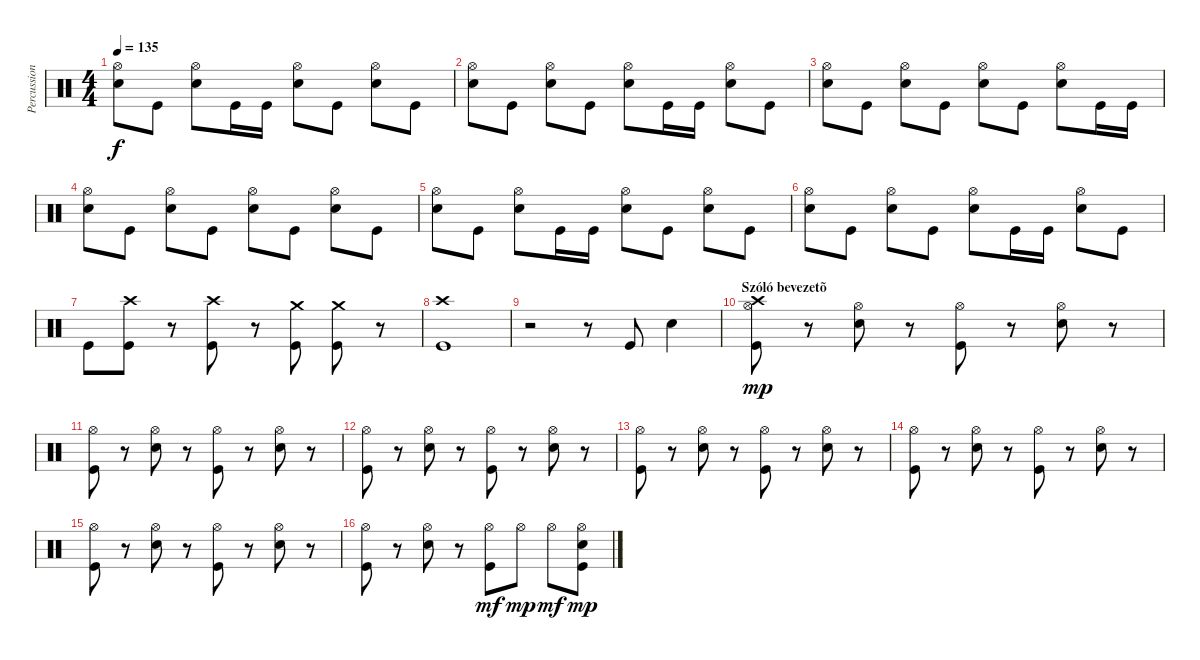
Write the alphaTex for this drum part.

\track ("Percussion" "Percussion") {instrument percussion}
\staff {score}
\articulation defaults
\ts (4 4)
\tempo 135
\clef neutral
\ks c
("Hi-Hat (open)" "Snare (hit) 2").8{dy f} "Kick (hit)".8 ("Hi-Hat (open)" "Snare (hit) 2").8 "Kick (hit)".16 "Kick (hit)".16 ("Hi-Hat (open)" "Snare (hit) 2").8 "Kick (hit)".8 ("Hi-Hat (open)" "Snare (hit) 2").8 "Kick (hit)".8 |
("Hi-Hat (open)" "Snare (hit) 2").8 "Kick (hit)".8 ("Hi-Hat (open)" "Snare (hit) 2").8 "Kick (hit)".8 ("Hi-Hat (open)" "Snare (hit) 2").8 "Kick (hit)".16 "Kick (hit)".16 ("Hi-Hat (open)" "Snare (hit) 2").8 "Kick (hit)".8 |
("Hi-Hat (open)" "Snare (hit) 2").8 "Kick (hit)".8 ("Hi-Hat (open)" "Snare (hit) 2").8 "Kick (hit)".8 ("Hi-Hat (open)" "Snare (hit) 2").8 "Kick (hit)".8 ("Hi-Hat (open)" "Snare (hit) 2").8 "Kick (hit)".16 "Kick (hit)".16 |
("Hi-Hat (open)" "Snare (hit) 2").8 "Kick (hit)".8 ("Hi-Hat (open)" "Snare (hit) 2").8 "Kick (hit)".8 ("Hi-Hat (open)" "Snare (hit) 2").8 "Kick (hit)".8 ("Hi-Hat (open)" "Snare (hit) 2").8 "Kick (hit)".8 |
("Hi-Hat (open)" "Snare (hit) 2").8 "Kick (hit)".8 ("Hi-Hat (open)" "Snare (hit) 2").8 "Kick (hit)".16 "Kick (hit)".16 ("Hi-Hat (open)" "Snare (hit) 2").8 "Kick (hit)".8 ("Hi-Hat (open)" "Snare (hit) 2").8 "Kick (hit)".8 |
("Hi-Hat (open)" "Snare (hit) 2").8 "Kick (hit)".8 ("Hi-Hat (open)" "Snare (hit) 2").8 "Kick (hit)".8 ("Hi-Hat (open)" "Snare (hit) 2").8 "Kick (hit)".16 "Kick (hit)".16 ("Hi-Hat (open)" "Snare (hit) 2").8 "Kick (hit)".8 |
"Kick (hit)".8 ("Crash high (hit)" "Kick (hit)").8 r.8 ("Crash high (hit)" "Kick (hit)").8 r.8 ("Crash medium (hit)" "Kick (hit)").8 ("Crash medium (hit)" "Kick (hit)").8 r.8 |
("Crash high (hit)" "Kick (hit)").1 |
r.2 r.8 "Kick (hit)".8 "Snare (hit) 2".4 |
\section ("" "Szóló bevezetõ")
("Hi-Hat (open)" "Crash high (hit)" "Kick (hit)").8{dy mp} r.8 ("Hi-Hat (open)" "Snare (hit) 2").8 r.8 ("Hi-Hat (open)" "Kick (hit)").8 r.8 ("Hi-Hat (open)" "Snare (hit) 2").8 r.8 |
("Hi-Hat (open)" "Kick (hit)").8 r.8 ("Hi-Hat (open)" "Snare (hit) 2").8 r.8 ("Hi-Hat (open)" "Kick (hit)").8 r.8 ("Hi-Hat (open)" "Snare (hit) 2").8 r.8 |
("Hi-Hat (open)" "Kick (hit)").8 r.8 ("Hi-Hat (open)" "Snare (hit) 2").8 r.8 ("Hi-Hat (open)" "Kick (hit)").8 r.8 ("Hi-Hat (open)" "Snare (hit) 2").8 r.8 |
("Hi-Hat (open)" "Kick (hit)").8 r.8 ("Hi-Hat (open)" "Snare (hit) 2").8 r.8 ("Hi-Hat (open)" "Kick (hit)").8 r.8 ("Hi-Hat (open)" "Snare (hit) 2").8 r.8 |
("Hi-Hat (open)" "Kick (hit)").8 r.8 ("Hi-Hat (open)" "Snare (hit) 2").8 r.8 ("Hi-Hat (open)" "Kick (hit)").8 r.8 ("Hi-Hat (open)" "Snare (hit) 2").8 r.8 |
("Hi-Hat (open)" "Kick (hit)").8 r.8 ("Hi-Hat (open)" "Snare (hit) 2").8 r.8 ("Hi-Hat (open)" "Kick (hit)").8 r.8 ("Hi-Hat (open)" "Snare (hit) 2").8 r.8 |
("Hi-Hat (open)" "Kick (hit)").8 r.8 ("Hi-Hat (open)" "Snare (hit) 2").8 r.8 ("Hi-Hat (open)" "Kick (hit)").8{dy mf} "Hi-Hat (open)".8{dy mp} "Hi-Hat (open)".8{dy mf} ("Hi-Hat (open)" "Kick (hit)" "Snare (hit) 2").8{dy mp}
